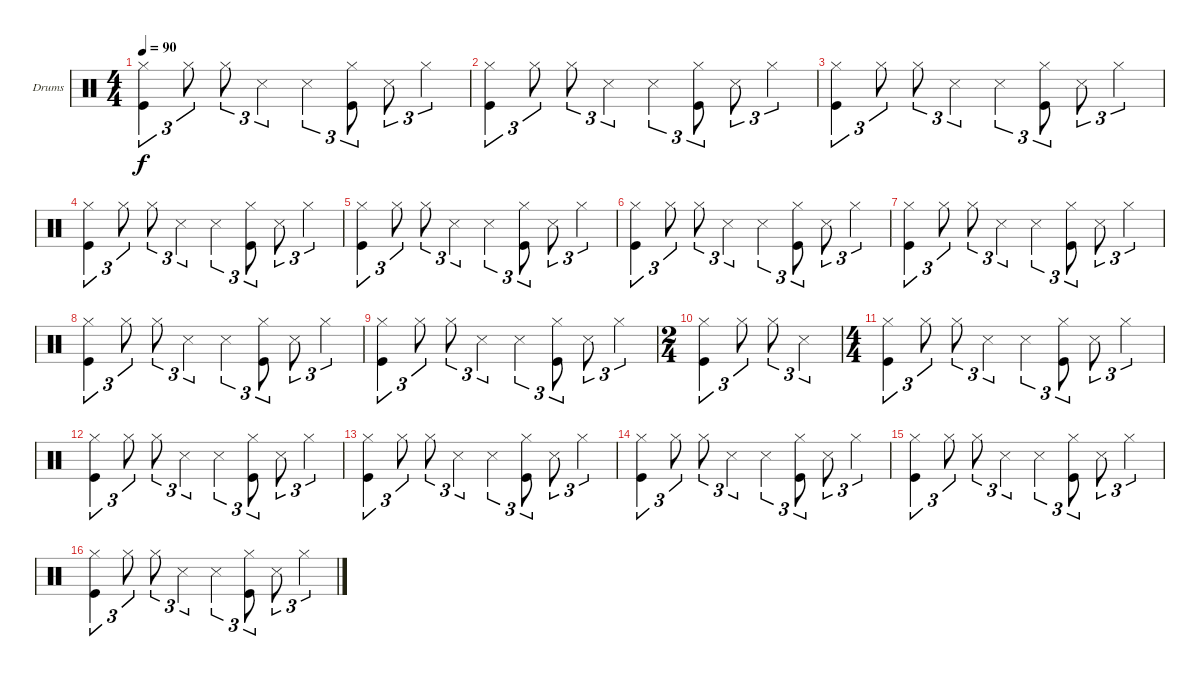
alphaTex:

\defaultSystemsLayout 4
\bracketExtendMode groupsimilarinstruments
\firstSystemTrackNameOrientation horizontal
\otherSystemsTrackNameOrientation horizontal
\track ("Drumkit" "Drums") {instrument percussion}
\staff {score}
\articulation defaults
\ts (4 4)
\tempo 90
\clef neutral
\ks c
("Hi-Hat (closed)" "Kick (hit)").4{tu (3 2) dy f} "Hi-Hat (closed)".8{tu (3 2)} "Hi-Hat (closed)".8{tu (3 2)} "Snare (side stick) 3".4{tu (3 2)} "Snare (side stick) 3".4{tu (3 2)} ("Kick (hit)" "Hi-Hat (closed)").8{tu (3 2)} "Snare (side stick) 3".8{tu (3 2)} "Hi-Hat (closed)".4{tu (3 2)} |
("Hi-Hat (closed)" "Kick (hit)").4{tu (3 2)} "Hi-Hat (closed)".8{tu (3 2)} "Hi-Hat (closed)".8{tu (3 2)} "Snare (side stick) 3".4{tu (3 2)} "Snare (side stick) 3".4{tu (3 2)} ("Kick (hit)" "Hi-Hat (closed)").8{tu (3 2)} "Snare (side stick) 3".8{tu (3 2)} "Hi-Hat (closed)".4{tu (3 2)} |
("Hi-Hat (closed)" "Kick (hit)").4{tu (3 2)} "Hi-Hat (closed)".8{tu (3 2)} "Hi-Hat (closed)".8{tu (3 2)} "Snare (side stick) 3".4{tu (3 2)} "Snare (side stick) 3".4{tu (3 2)} ("Kick (hit)" "Hi-Hat (closed)").8{tu (3 2)} "Snare (side stick) 3".8{tu (3 2)} "Hi-Hat (closed)".4{tu (3 2)} |
("Hi-Hat (closed)" "Kick (hit)").4{tu (3 2)} "Hi-Hat (closed)".8{tu (3 2)} "Hi-Hat (closed)".8{tu (3 2)} "Snare (side stick) 3".4{tu (3 2)} "Snare (side stick) 3".4{tu (3 2)} ("Kick (hit)" "Hi-Hat (closed)").8{tu (3 2)} "Snare (side stick) 3".8{tu (3 2)} "Hi-Hat (closed)".4{tu (3 2)} |
("Hi-Hat (closed)" "Kick (hit)").4{tu (3 2)} "Hi-Hat (closed)".8{tu (3 2)} "Hi-Hat (closed)".8{tu (3 2)} "Snare (side stick) 3".4{tu (3 2)} "Snare (side stick) 3".4{tu (3 2)} ("Kick (hit)" "Hi-Hat (closed)").8{tu (3 2)} "Snare (side stick) 3".8{tu (3 2)} "Hi-Hat (closed)".4{tu (3 2)} |
("Hi-Hat (closed)" "Kick (hit)").4{tu (3 2)} "Hi-Hat (closed)".8{tu (3 2)} "Hi-Hat (closed)".8{tu (3 2)} "Snare (side stick) 3".4{tu (3 2)} "Snare (side stick) 3".4{tu (3 2)} ("Kick (hit)" "Hi-Hat (closed)").8{tu (3 2)} "Snare (side stick) 3".8{tu (3 2)} "Hi-Hat (closed)".4{tu (3 2)} |
("Hi-Hat (closed)" "Kick (hit)").4{tu (3 2)} "Hi-Hat (closed)".8{tu (3 2)} "Hi-Hat (closed)".8{tu (3 2)} "Snare (side stick) 3".4{tu (3 2)} "Snare (side stick) 3".4{tu (3 2)} ("Kick (hit)" "Hi-Hat (closed)").8{tu (3 2)} "Snare (side stick) 3".8{tu (3 2)} "Hi-Hat (closed)".4{tu (3 2)} |
("Hi-Hat (closed)" "Kick (hit)").4{tu (3 2)} "Hi-Hat (closed)".8{tu (3 2)} "Hi-Hat (closed)".8{tu (3 2)} "Snare (side stick) 3".4{tu (3 2)} "Snare (side stick) 3".4{tu (3 2)} ("Kick (hit)" "Hi-Hat (closed)").8{tu (3 2)} "Snare (side stick) 3".8{tu (3 2)} "Hi-Hat (closed)".4{tu (3 2)} |
("Hi-Hat (closed)" "Kick (hit)").4{tu (3 2)} "Hi-Hat (closed)".8{tu (3 2)} "Hi-Hat (closed)".8{tu (3 2)} "Snare (side stick) 3".4{tu (3 2)} "Snare (side stick) 3".4{tu (3 2)} ("Kick (hit)" "Hi-Hat (closed)").8{tu (3 2)} "Snare (side stick) 3".8{tu (3 2)} "Hi-Hat (closed)".4{tu (3 2)} |
\ts (2 4)
("Hi-Hat (closed)" "Kick (hit)").4{tu (3 2)} "Hi-Hat (closed)".8{tu (3 2)} "Hi-Hat (closed)".8{tu (3 2)} "Snare (side stick) 3".4{tu (3 2)} |
\ts (4 4)
("Hi-Hat (closed)" "Kick (hit)").4{tu (3 2)} "Hi-Hat (closed)".8{tu (3 2)} "Hi-Hat (closed)".8{tu (3 2)} "Snare (side stick) 3".4{tu (3 2)} "Snare (side stick) 3".4{tu (3 2)} ("Kick (hit)" "Hi-Hat (closed)").8{tu (3 2)} "Snare (side stick) 3".8{tu (3 2)} "Hi-Hat (closed)".4{tu (3 2)} |
("Hi-Hat (closed)" "Kick (hit)").4{tu (3 2)} "Hi-Hat (closed)".8{tu (3 2)} "Hi-Hat (closed)".8{tu (3 2)} "Snare (side stick) 3".4{tu (3 2)} "Snare (side stick) 3".4{tu (3 2)} ("Kick (hit)" "Hi-Hat (closed)").8{tu (3 2)} "Snare (side stick) 3".8{tu (3 2)} "Hi-Hat (closed)".4{tu (3 2)} |
("Hi-Hat (closed)" "Kick (hit)").4{tu (3 2)} "Hi-Hat (closed)".8{tu (3 2)} "Hi-Hat (closed)".8{tu (3 2)} "Snare (side stick) 3".4{tu (3 2)} "Snare (side stick) 3".4{tu (3 2)} ("Kick (hit)" "Hi-Hat (closed)").8{tu (3 2)} "Snare (side stick) 3".8{tu (3 2)} "Hi-Hat (closed)".4{tu (3 2)} |
("Hi-Hat (closed)" "Kick (hit)").4{tu (3 2)} "Hi-Hat (closed)".8{tu (3 2)} "Hi-Hat (closed)".8{tu (3 2)} "Snare (side stick) 3".4{tu (3 2)} "Snare (side stick) 3".4{tu (3 2)} ("Kick (hit)" "Hi-Hat (closed)").8{tu (3 2)} "Snare (side stick) 3".8{tu (3 2)} "Hi-Hat (closed)".4{tu (3 2)} |
("Hi-Hat (closed)" "Kick (hit)").4{tu (3 2)} "Hi-Hat (closed)".8{tu (3 2)} "Hi-Hat (closed)".8{tu (3 2)} "Snare (side stick) 3".4{tu (3 2)} "Snare (side stick) 3".4{tu (3 2)} ("Kick (hit)" "Hi-Hat (closed)").8{tu (3 2)} "Snare (side stick) 3".8{tu (3 2)} "Hi-Hat (closed)".4{tu (3 2)} |
("Hi-Hat (closed)" "Kick (hit)").4{tu (3 2)} "Hi-Hat (closed)".8{tu (3 2)} "Hi-Hat (closed)".8{tu (3 2)} "Snare (side stick) 3".4{tu (3 2)} "Snare (side stick) 3".4{tu (3 2)} ("Kick (hit)" "Hi-Hat (closed)").8{tu (3 2)} "Snare (side stick) 3".8{tu (3 2)} "Hi-Hat (closed)".4{tu (3 2)}
